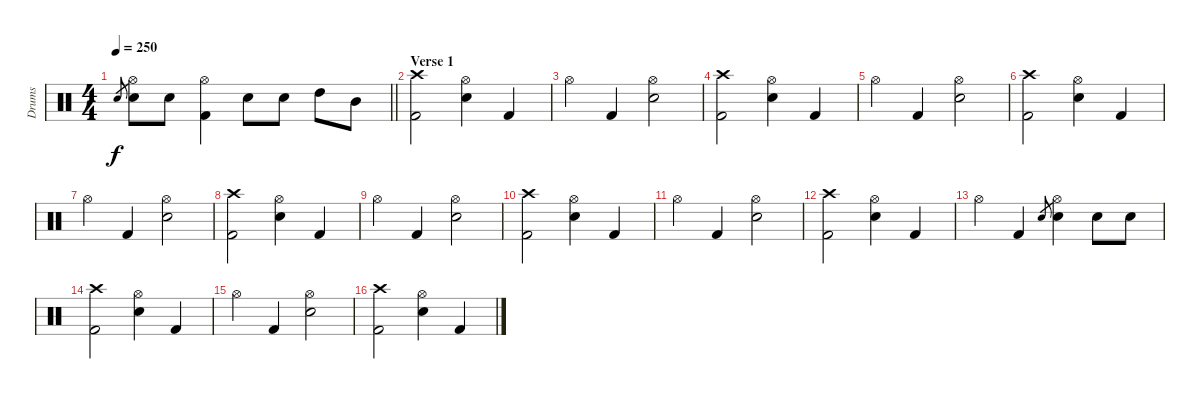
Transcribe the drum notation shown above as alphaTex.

\track ("Drums" "Drums") {instrument percussion}
\staff {score}
\articulation defaults
\ts (4 4)
\tempo 250
\clef neutral
\barLineRight lightlight
\ks c "Electric Snare (hit)".8{gr dy f}
("Hi-Hat (open)" "Electric Snare (hit)").8 "Electric Snare (hit)".8 ("Hi-Hat (open)" "Kick (hit) 2").4 "Electric Snare (hit)".8 "Electric Snare (hit)".8 "High Tom (hit)".8 "Mid Tom (hit)".8 |
\section ("" "Verse 1")
("Crash high (hit)" "Kick (hit) 2").2 ("Hi-Hat (open)" "Electric Snare (hit)").4 "Kick (hit) 2".4 |
"Hi-Hat (open)".4 "Kick (hit) 2".4 ("Hi-Hat (open)" "Electric Snare (hit)").2 |
("Crash high (hit)" "Kick (hit) 2").2 ("Hi-Hat (open)" "Electric Snare (hit)").4 "Kick (hit) 2".4 |
"Hi-Hat (open)".4 "Kick (hit) 2".4 ("Hi-Hat (open)" "Electric Snare (hit)").2 |
("Crash high (hit)" "Kick (hit) 2").2 ("Hi-Hat (open)" "Electric Snare (hit)").4 "Kick (hit) 2".4 |
"Hi-Hat (open)".4 "Kick (hit) 2".4 ("Hi-Hat (open)" "Electric Snare (hit)").2 |
("Crash high (hit)" "Kick (hit) 2").2 ("Hi-Hat (open)" "Electric Snare (hit)").4 "Kick (hit) 2".4 |
"Hi-Hat (open)".4 "Kick (hit) 2".4 ("Hi-Hat (open)" "Electric Snare (hit)").2 |
("Crash high (hit)" "Kick (hit) 2").2 ("Hi-Hat (open)" "Electric Snare (hit)").4 "Kick (hit) 2".4 |
"Hi-Hat (open)".4 "Kick (hit) 2".4 ("Hi-Hat (open)" "Electric Snare (hit)").2 |
("Crash high (hit)" "Kick (hit) 2").2 ("Hi-Hat (open)" "Electric Snare (hit)").4 "Kick (hit) 2".4 |
"Hi-Hat (open)".4 "Kick (hit) 2".4 "Electric Snare (hit)".8{gr} ("Hi-Hat (open)" "Electric Snare (hit)").4 "Electric Snare (hit)".8 "Electric Snare (hit)".8 |
("Crash high (hit)" "Kick (hit) 2").2 ("Hi-Hat (open)" "Electric Snare (hit)").4 "Kick (hit) 2".4 |
"Hi-Hat (open)".4 "Kick (hit) 2".4 ("Hi-Hat (open)" "Electric Snare (hit)").2 |
("Crash high (hit)" "Kick (hit) 2").2 ("Hi-Hat (open)" "Electric Snare (hit)").4 "Kick (hit) 2".4
